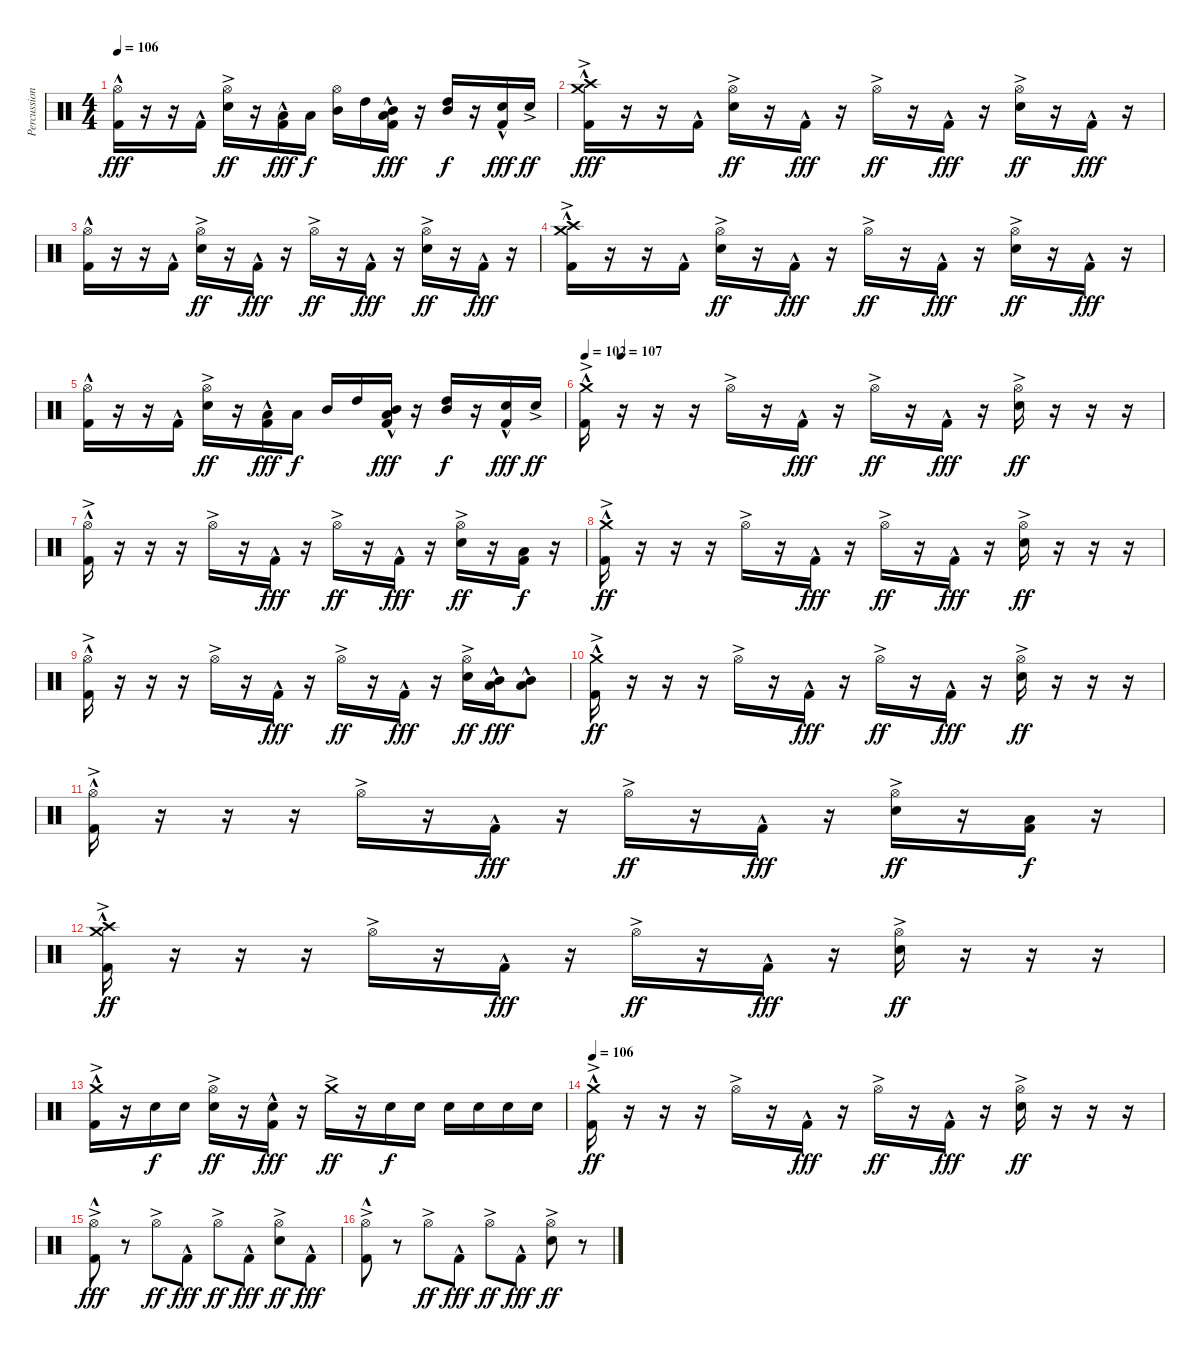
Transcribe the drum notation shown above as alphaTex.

\track ("Percussion" "Percussion") {instrument percussion}
\staff {score}
\articulation defaults
\ts (4 4)
\tempo 106
\clef neutral
\ks c
("Hi-Hat (open)"{hac} "Kick (hit) 2"{hac}).16{dy fff} r.16 r.16 "Kick (hit) 2"{hac}.16 ("Hi-Hat (open)"{ac} "Snare (hit) 2"{ac}).16{dy ff} r.16 ("Low Tom (hit)" "Kick (hit) 2"{hac}).16{dy fff} "Low Tom (hit)".16{dy f} ("Hi-Hat (open)" "Mid Tom (hit)").16 "High Tom (hit)".16 ("Low Tom (hit)" "Mid Tom (hit)" "Kick (hit) 2"{hac}).16{dy fff} r.16 ("High Tom (hit)" "Mid Tom (hit)").16{dy f} r.16 ("Snare (hit) 2" "Kick (hit) 2"{hac}).16{dy fff} "Snare (hit) 2"{ac}.16{dy ff} |
("Crash medium (hit)"{hac} "Crash high (hit)"{ac} "Kick (hit) 2"{hac}).16{dy fff} r.16 r.16 "Kick (hit) 2"{hac}.16 ("Hi-Hat (open)"{ac} "Snare (hit) 2"{ac}).16{dy ff} r.16 "Kick (hit) 2"{hac}.16{dy fff} r.16 "Hi-Hat (open)"{ac}.16{dy ff} r.16 "Kick (hit) 2"{hac}.16{dy fff} r.16 ("Hi-Hat (open)"{ac} "Snare (hit) 2"{ac}).16{dy ff} r.16 "Kick (hit) 2"{hac}.16{dy fff} r.16 |
("Hi-Hat (open)"{hac} "Kick (hit) 2"{hac}).16 r.16 r.16 "Kick (hit) 2"{hac}.16 ("Hi-Hat (open)"{ac} "Snare (hit) 2"{ac}).16{dy ff} r.16 "Kick (hit) 2"{hac}.16{dy fff} r.16 "Hi-Hat (open)"{ac}.16{dy ff} r.16 "Kick (hit) 2"{hac}.16{dy fff} r.16 ("Hi-Hat (open)"{ac} "Snare (hit) 2"{ac}).16{dy ff} r.16 "Kick (hit) 2"{hac}.16{dy fff} r.16 |
("Crash medium (hit)"{hac} "Crash high (hit)"{ac} "Kick (hit) 2"{hac}).16 r.16 r.16 "Kick (hit) 2"{hac}.16 ("Hi-Hat (open)"{ac} "Snare (hit) 2"{ac}).16{dy ff} r.16 "Kick (hit) 2"{hac}.16{dy fff} r.16 "Hi-Hat (open)"{ac}.16{dy ff} r.16 "Kick (hit) 2"{hac}.16{dy fff} r.16 ("Hi-Hat (open)"{ac} "Snare (hit) 2"{ac}).16{dy ff} r.16 "Kick (hit) 2"{hac}.16{dy fff} r.16 |
("Hi-Hat (open)"{hac} "Kick (hit) 2"{hac}).16 r.16 r.16 "Kick (hit) 2"{hac}.16 ("Hi-Hat (open)"{ac} "Snare (hit) 2"{ac}).16{dy ff} r.16 ("Low Tom (hit)" "Kick (hit) 2"{hac}).16{dy fff} "Low Tom (hit)".16{dy f} "Mid Tom (hit)".16 "High Tom (hit)".16 ("Low Tom (hit)" "Mid Tom (hit)" "Kick (hit) 2"{hac}).16{dy fff} r.16 ("High Tom (hit)" "Mid Tom (hit)").16{dy f} r.16 ("Snare (hit) 2" "Kick (hit) 2"{hac}).16{dy fff} "Snare (hit) 2"{ac}.16{dy ff} |
\tempo (107 0.0625)
\tempo 102
("Crash medium (hit)"{hac} "Kick (hit) 2"{ac}).16 r.16 r.16 r.16 "Hi-Hat (open)"{ac}.16 r.16 "Kick (hit) 2"{hac}.16{dy fff} r.16 "Hi-Hat (open)"{ac}.16{dy ff} r.16 "Kick (hit) 2"{hac}.16{dy fff} r.16 ("Hi-Hat (open)"{ac} "Snare (hit) 2"{ac}).16{dy ff} r.16 r.16 r.16 |
("Hi-Hat (open)"{hac} "Kick (hit) 2"{ac}).16 r.16 r.16 r.16 "Hi-Hat (open)"{ac}.16 r.16 "Kick (hit) 2"{hac}.16{dy fff} r.16 "Hi-Hat (open)"{ac}.16{dy ff} r.16 "Kick (hit) 2"{hac}.16{dy fff} r.16 ("Hi-Hat (open)"{ac} "Snare (hit) 2"{ac}).16{dy ff} r.16 ("Low Tom (hit)" "Kick (hit) 2").16{dy f} r.16 |
("Crash medium (hit)"{hac} "Kick (hit) 2"{ac}).16{dy ff} r.16 r.16 r.16 "Hi-Hat (open)"{ac}.16 r.16 "Kick (hit) 2"{hac}.16{dy fff} r.16 "Hi-Hat (open)"{ac}.16{dy ff} r.16 "Kick (hit) 2"{hac}.16{dy fff} r.16 ("Hi-Hat (open)"{ac} "Snare (hit) 2"{ac}).16{dy ff} r.16 r.16 r.16 |
("Hi-Hat (open)"{hac} "Kick (hit) 2"{ac}).16 r.16 r.16 r.16 "Hi-Hat (open)"{ac}.16 r.16 "Kick (hit) 2"{hac}.16{dy fff} r.16 "Hi-Hat (open)"{ac}.16{dy ff} r.16 "Kick (hit) 2"{hac}.16{dy fff} r.16 ("Hi-Hat (open)"{ac} "Snare (hit) 2"{ac}).16{dy ff} ("Low Tom (hit)"{hac} "Mid Tom (hit)"{hac}).16{dy fff} ("Low Tom (hit)"{hac} "Mid Tom (hit)"{hac}).8 |
("Crash medium (hit)"{hac} "Kick (hit) 2"{ac}).16{dy ff} r.16 r.16 r.16 "Hi-Hat (open)"{ac}.16 r.16 "Kick (hit) 2"{hac}.16{dy fff} r.16 "Hi-Hat (open)"{ac}.16{dy ff} r.16 "Kick (hit) 2"{hac}.16{dy fff} r.16 ("Hi-Hat (open)"{ac} "Snare (hit) 2"{ac}).16{dy ff} r.16 r.16 r.16 |
("Hi-Hat (open)"{hac} "Kick (hit) 2"{ac}).16 r.16 r.16 r.16 "Hi-Hat (open)"{ac}.16 r.16 "Kick (hit) 2"{hac}.16{dy fff} r.16 "Hi-Hat (open)"{ac}.16{dy ff} r.16 "Kick (hit) 2"{hac}.16{dy fff} r.16 ("Hi-Hat (open)"{ac} "Snare (hit) 2"{ac}).16{dy ff} r.16 ("Low Tom (hit)" "Kick (hit) 2").16{dy f} r.16 |
("Crash medium (hit)"{hac} "Crash high (hit)"{hac} "Kick (hit) 2"{ac}).16{dy ff} r.16 r.16 r.16 "Hi-Hat (open)"{ac}.16 r.16 "Kick (hit) 2"{hac}.16{dy fff} r.16 "Hi-Hat (open)"{ac}.16{dy ff} r.16 "Kick (hit) 2"{hac}.16{dy fff} r.16 ("Hi-Hat (open)"{ac} "Snare (hit) 2"{ac}).16{dy ff} r.16 r.16 r.16 |
("Crash medium (hit)"{hac} "Kick (hit) 2"{ac}).16 r.16 "Snare (hit) 2".16{dy f} "Snare (hit) 2".16 ("Hi-Hat (open)"{ac} "Snare (hit) 2").16{dy ff} r.16 ("Snare (hit) 2" "Kick (hit) 2"{hac}).16{dy fff} r.16 "Crash medium (hit)"{ac}.16{dy ff} r.16 "Snare (hit) 2".16{dy f} "Snare (hit) 2".16 "Snare (hit) 2".16 "Snare (hit) 2".16 "Snare (hit) 2".16 "Snare (hit) 2".16 |
\tempo 106
("Crash medium (hit)"{hac} "Kick (hit) 2"{ac}).16{dy ff} r.16 r.16 r.16 "Hi-Hat (open)"{ac}.16 r.16 "Kick (hit) 2"{hac}.16{dy fff} r.16 "Hi-Hat (open)"{ac}.16{dy ff} r.16 "Kick (hit) 2"{hac}.16{dy fff} r.16 ("Hi-Hat (open)"{ac} "Snare (hit) 2"{ac}).16{dy ff} r.16 r.16 r.16 |
("Hi-Hat (open)"{ac} "Kick (hit) 2"{hac}).8{dy fff} r.8 "Hi-Hat (open)"{ac}.8{dy ff} "Kick (hit) 2"{hac}.8{dy fff} "Hi-Hat (open)"{ac}.8{dy ff} "Kick (hit) 2"{hac}.8{dy fff} ("Hi-Hat (open)"{ac} "Snare (hit) 2"{ac}).8{dy ff} "Kick (hit) 2"{hac}.8{dy fff} |
("Hi-Hat (open)"{ac} "Kick (hit) 2"{hac}).8 r.8 "Hi-Hat (open)"{ac}.8{dy ff} "Kick (hit) 2"{hac}.8{dy fff} "Hi-Hat (open)"{ac}.8{dy ff} "Kick (hit) 2"{hac}.8{dy fff} ("Hi-Hat (open)"{ac} "Snare (hit) 2"{ac}).8{dy ff} r.8
